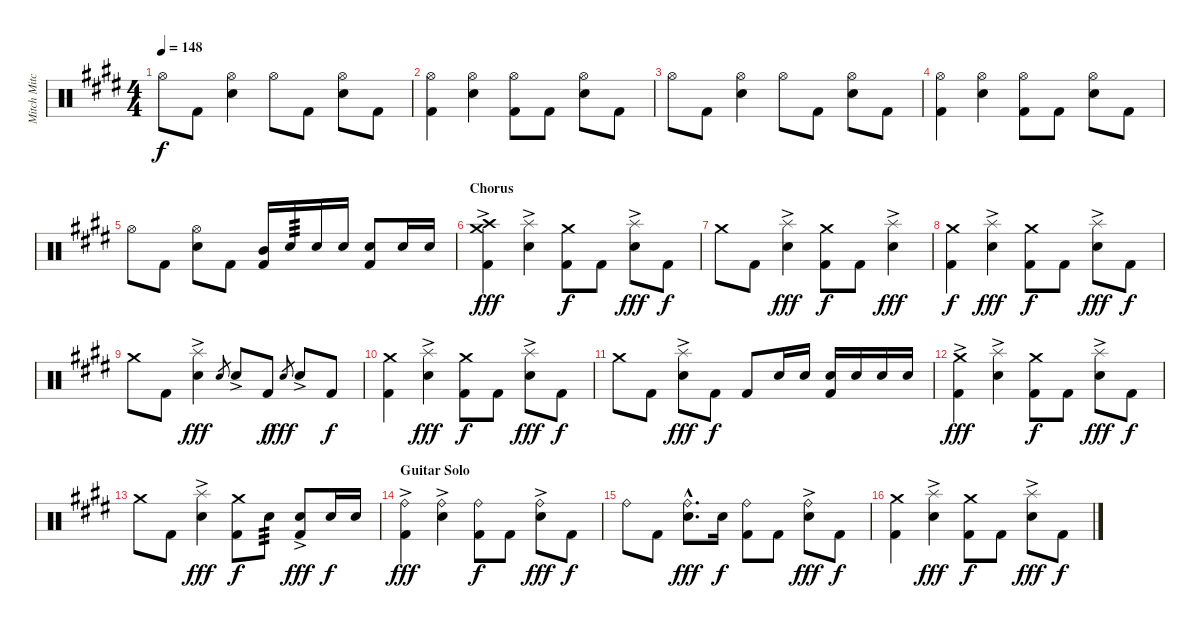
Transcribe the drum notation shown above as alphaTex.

\track ("Mitch Mitchell" "Mitch Mitc") {instrument percussion}
\staff {score}
\articulation defaults
\ts (4 4)
\tempo 148
\clef neutral
\ks e "Hi-Hat (open)".8{dy f} "Kick (hit) 2".8
("Hi-Hat (open)" "Snare (hit) 2").4 "Hi-Hat (open)".8 "Kick (hit) 2".8 ("Hi-Hat (open)" "Snare (hit) 2").8 "Kick (hit) 2".8 |
("Hi-Hat (open)" "Kick (hit) 2").4 ("Hi-Hat (open)" "Snare (hit) 2").4 ("Hi-Hat (open)" "Kick (hit) 2").8 "Kick (hit) 2".8 ("Hi-Hat (open)" "Snare (hit) 2").8 "Kick (hit) 2".8 |
"Hi-Hat (open)".8 "Kick (hit) 2".8 ("Hi-Hat (open)" "Snare (hit) 2").4 "Hi-Hat (open)".8 "Kick (hit) 2".8 ("Hi-Hat (open)" "Snare (hit) 2").8 "Kick (hit) 2".8 |
("Hi-Hat (open)" "Kick (hit) 2").4 ("Hi-Hat (open)" "Snare (hit) 2").4 ("Hi-Hat (open)" "Kick (hit) 2").8 "Kick (hit) 2".8 ("Hi-Hat (open)" "Snare (hit) 2").8 "Kick (hit) 2".8 |
"Hi-Hat (open)".8 "Kick (hit) 2".8 ("Hi-Hat (open)" "Snare (hit) 2").8 "Kick (hit) 2".8 ("Mid Tom (hit)" "Kick (hit) 2").16 "Snare (hit) 2".16{tp 3} "Snare (hit) 2".16 "Snare (hit) 2".16 ("Snare (hit) 2" "Kick (hit) 2").8 "Snare (hit) 2".16 "Snare (hit) 2".16 |
\section ("" "Chorus")
("Crash high (hit)"{ac} "Crash medium (hit)"{ac} "Kick (hit) 2"{ac}).4{dy fff} ("Splash (hit)"{ac} "Snare (hit) 2"{ac}).4 ("Crash medium (hit)" "Kick (hit) 2").8{dy f} "Kick (hit) 2".8 ("Splash (hit)"{ac} "Snare (hit) 2"{ac}).8{dy fff} "Kick (hit) 2".8{dy f} |
"Crash medium (hit)".8 "Kick (hit) 2".8 ("Splash (hit)"{ac} "Snare (hit) 2"{ac}).4{dy fff} ("Crash medium (hit)" "Kick (hit) 2").8{dy f} "Kick (hit) 2".8 ("Splash (hit)"{ac} "Snare (hit) 2"{ac}).4{dy fff} |
("Crash medium (hit)" "Kick (hit) 2").4{dy f} ("Splash (hit)"{ac} "Snare (hit) 2"{ac}).4{dy fff} ("Crash medium (hit)" "Kick (hit) 2").8{dy f} "Kick (hit) 2".8 ("Splash (hit)"{ac} "Snare (hit) 2").8{dy fff} "Kick (hit) 2".8{dy f} |
"Crash medium (hit)".8 "Kick (hit) 2".8 ("Splash (hit)"{ac} "Snare (hit) 2"{ac}).4{dy fff} "Snare (hit) 2".8{gr} "Snare (hit) 2"{ac}.8 "Kick (hit) 2".8{dy f} "Snare (hit) 2".8{gr dy fff} "Snare (hit) 2"{ac}.8 "Kick (hit) 2".8{dy f} |
("Crash medium (hit)" "Kick (hit) 2").4 ("Splash (hit)"{ac} "Snare (hit) 2"{ac}).4{dy fff} ("Crash medium (hit)" "Kick (hit) 2").8{dy f} "Kick (hit) 2".8 ("Splash (hit)"{ac} "Snare (hit) 2"{ac}).8{dy fff} "Kick (hit) 2".8{dy f} |
"Crash medium (hit)".8 "Kick (hit) 2".8 ("Splash (hit)"{ac} "Snare (hit) 2"{ac}).8{dy fff} "Kick (hit) 2".8{dy f} "Kick (hit) 2".8 "Snare (hit) 2".16 "Snare (hit) 2".16 ("Snare (hit) 2" "Kick (hit) 2").16 "Snare (hit) 2".16 "Snare (hit) 2".16 "Snare (hit) 2".16 |
("Crash medium (hit)"{ac} "Kick (hit) 2"{ac}).4{dy fff} ("Splash (hit)"{ac} "Snare (hit) 2"{ac}).4 ("Crash medium (hit)" "Kick (hit) 2").8{dy f} "Kick (hit) 2".8 ("Splash (hit)"{ac} "Snare (hit) 2").8{dy fff} "Kick (hit) 2".8{dy f} |
"Crash medium (hit)".8 "Kick (hit) 2".8 ("Splash (hit)"{ac} "Snare (hit) 2").4{dy fff} ("Crash medium (hit)" "Kick (hit) 2").8{dy f} "Snare (hit) 2".8{tp 3} ("Snare (hit) 2"{ac} "Kick (hit) 2").8{dy fff} "Snare (hit) 2".16{dy f} "Snare (hit) 2".16 |
\section ("" "Guitar Solo")
("Ride (bell)"{ac} "Kick (hit) 2").4{dy fff} ("Ride (bell)"{ac} "Snare (hit) 2"{ac}).4 ("Ride (bell)" "Kick (hit) 2").8{dy f} "Kick (hit) 2".8 ("Ride (bell)"{ac} "Snare (hit) 2"{ac}).8{dy fff} "Kick (hit) 2".8{dy f} |
"Ride (bell)".8 "Kick (hit) 2".8 ("Ride (bell)"{hac} "Snare (hit) 2"{hac}).8{d dy fff} "Snare (hit) 2".16{dy f} ("Ride (bell)" "Kick (hit) 2").8 "Kick (hit) 2".8 ("Ride (bell)"{ac} "Snare (hit) 2"{ac}).8{dy fff} "Kick (hit) 2".8{dy f} |
("Crash medium (hit)" "Kick (hit) 2").4 ("Splash (hit)"{ac} "Snare (hit) 2"{ac}).4{dy fff} ("Crash medium (hit)" "Kick (hit) 2").8{dy f} "Kick (hit) 2".8 ("Splash (hit)"{ac} "Snare (hit) 2"{ac}).8{dy fff} "Kick (hit) 2".8{dy f}
